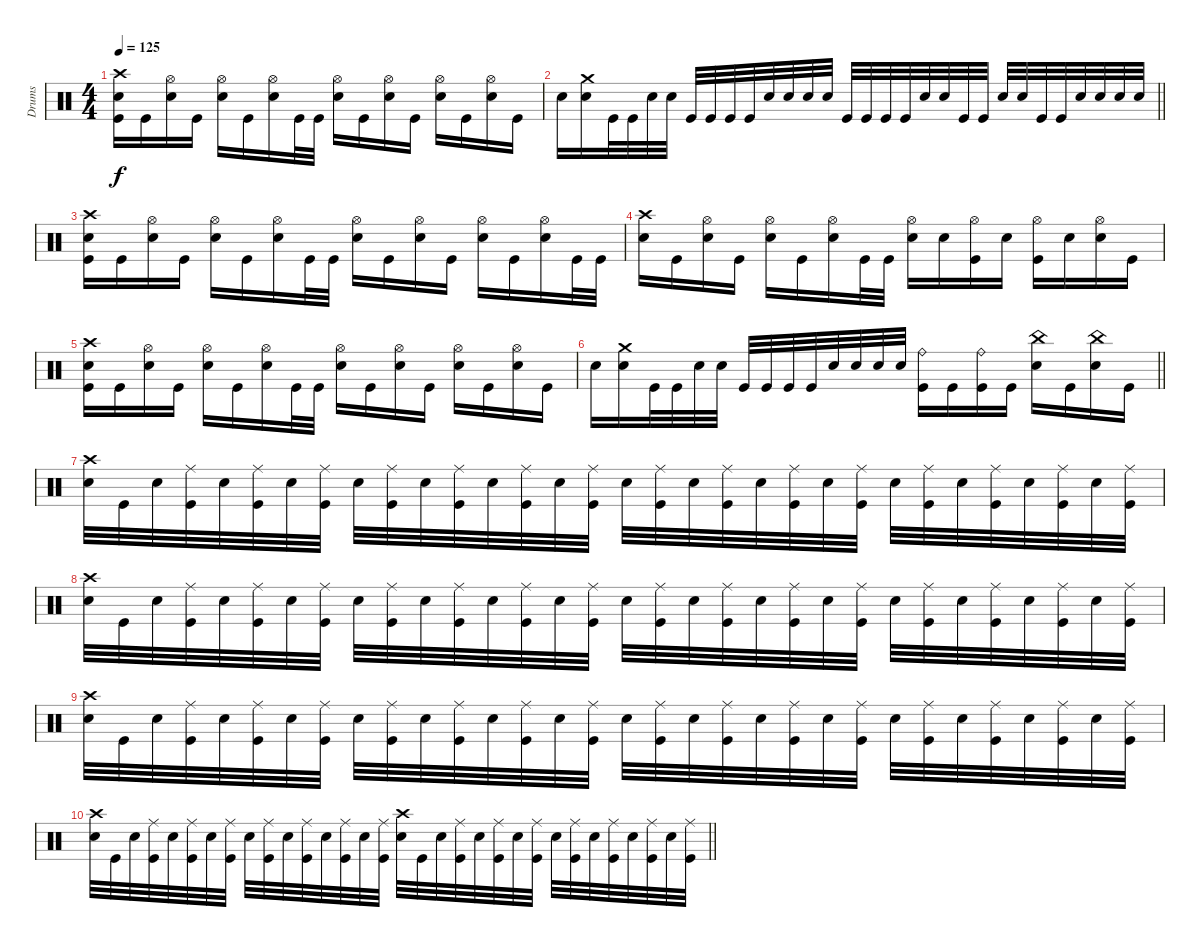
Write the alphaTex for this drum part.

\track ("Drums" "Drums") {instrument percussion}
\staff
\articulation defaults
\ts (4 4)
\tempo 125
\clef neutral
\ks c
("Crash high (hit)" "Electric Snare (hit)" "Kick (hit)").16{dy f} "Kick (hit)".16 ("Hi-Hat (open)" "Electric Snare (hit)").16 "Kick (hit)".16 ("Hi-Hat (open)" "Electric Snare (hit)").16 "Kick (hit)".16 ("Hi-Hat (open)" "Electric Snare (hit)").16 "Kick (hit)".32 "Kick (hit)".32 ("Hi-Hat (open)" "Electric Snare (hit)").16 "Kick (hit)".16 ("Hi-Hat (open)" "Electric Snare (hit)").16 "Kick (hit)".16 ("Hi-Hat (open)" "Electric Snare (hit)").16 "Kick (hit)".16 ("Hi-Hat (open)" "Electric Snare (hit)").16 "Kick (hit)".16 |
\barLineRight lightlight "Electric Snare (hit)".16
("Crash medium (hit)" "Electric Snare (hit)").16 "Kick (hit)".32 "Kick (hit)".32 "Electric Snare (hit)".32 "Electric Snare (hit)".32 "Kick (hit)".32 "Kick (hit)".32 "Kick (hit)".32 "Kick (hit)".32 "Electric Snare (hit)".32 "Electric Snare (hit)".32 "Electric Snare (hit)".32 "Electric Snare (hit)".32 "Kick (hit)".32 "Kick (hit)".32 "Kick (hit)".32 "Kick (hit)".32 "Electric Snare (hit)".32 "Electric Snare (hit)".32 "Kick (hit)".32 "Kick (hit)".32 "Electric Snare (hit)".32 "Electric Snare (hit)".32 "Kick (hit)".32 "Kick (hit)".32 "Electric Snare (hit)".32 "Electric Snare (hit)".32 "Electric Snare (hit)".32 "Electric Snare (hit)".32 |
("Crash high (hit)" "Electric Snare (hit)" "Kick (hit)").16 "Kick (hit)".16 ("Hi-Hat (open)" "Electric Snare (hit)").16 "Kick (hit)".16 ("Hi-Hat (open)" "Electric Snare (hit)").16 "Kick (hit)".16 ("Hi-Hat (open)" "Electric Snare (hit)").16 "Kick (hit)".32 "Kick (hit)".32 ("Hi-Hat (open)" "Electric Snare (hit)").16 "Kick (hit)".16 ("Hi-Hat (open)" "Electric Snare (hit)").16 "Kick (hit)".16 ("Hi-Hat (open)" "Electric Snare (hit)").16 "Kick (hit)".16 ("Hi-Hat (open)" "Electric Snare (hit)").16 "Kick (hit)".32 "Kick (hit)".32 |
("Crash high (hit)" "Electric Snare (hit)").16 "Kick (hit)".16 ("Hi-Hat (open)" "Electric Snare (hit)").16 "Kick (hit)".16 ("Hi-Hat (open)" "Electric Snare (hit)").16 "Kick (hit)".16 ("Hi-Hat (open)" "Electric Snare (hit)").16 "Kick (hit)".32 "Kick (hit)".32 ("Hi-Hat (open)" "Electric Snare (hit)").16 "Electric Snare (hit)".16 ("Hi-Hat (open)" "Kick (hit)").16 "Electric Snare (hit)".16 ("Hi-Hat (open)" "Kick (hit)").16 "Electric Snare (hit)".16 ("Hi-Hat (open)" "Electric Snare (hit)").16 "Kick (hit)".16 |
("Crash high (hit)" "Electric Snare (hit)" "Kick (hit)").16 "Kick (hit)".16 ("Hi-Hat (open)" "Electric Snare (hit)").16 "Kick (hit)".16 ("Hi-Hat (open)" "Electric Snare (hit)").16 "Kick (hit)".16 ("Hi-Hat (open)" "Electric Snare (hit)").16 "Kick (hit)".32 "Kick (hit)".32 ("Hi-Hat (open)" "Electric Snare (hit)").16 "Kick (hit)".16 ("Hi-Hat (open)" "Electric Snare (hit)").16 "Kick (hit)".16 ("Hi-Hat (open)" "Electric Snare (hit)").16 "Kick (hit)".16 ("Hi-Hat (open)" "Electric Snare (hit)").16 "Kick (hit)".16 |
\barLineRight lightlight "Electric Snare (hit)".16
("Crash medium (hit)" "Electric Snare (hit)").16 "Kick (hit)".32 "Kick (hit)".32 "Electric Snare (hit)".32 "Electric Snare (hit)".32 "Kick (hit)".32 "Kick (hit)".32 "Kick (hit)".32 "Kick (hit)".32 "Electric Snare (hit)".32 "Electric Snare (hit)".32 "Electric Snare (hit)".32 "Electric Snare (hit)".32 ("Ride (bell)" "Kick (hit)").16 "Kick (hit)".16 ("Ride (bell)" "Kick (hit)").16 "Kick (hit)".16 ("China (hit)" "Electric Snare (hit)").16 "Kick (hit)".16 ("China (hit)" "Electric Snare (hit)").16 "Kick (hit)".16 |
("Crash high (hit)" "Electric Snare (hit)").32 "Kick (hit)".32 "Electric Snare (hit)".32 ("Ride (middle)" "Kick (hit)").32 "Electric Snare (hit)".32 ("Ride (middle)" "Kick (hit)").32 "Electric Snare (hit)".32 ("Ride (middle)" "Kick (hit)").32 "Electric Snare (hit)".32 ("Ride (middle)" "Kick (hit)").32 "Electric Snare (hit)".32 ("Ride (middle)" "Kick (hit)").32 "Electric Snare (hit)".32 ("Ride (middle)" "Kick (hit)").32 "Electric Snare (hit)".32 ("Ride (middle)" "Kick (hit)").32 "Electric Snare (hit)".32 ("Ride (middle)" "Kick (hit)").32 "Electric Snare (hit)".32 ("Ride (middle)" "Kick (hit)").32 "Electric Snare (hit)".32 ("Ride (middle)" "Kick (hit)").32 "Electric Snare (hit)".32 ("Ride (middle)" "Kick (hit)").32 "Electric Snare (hit)".32 ("Ride (middle)" "Kick (hit)").32 "Electric Snare (hit)".32 ("Ride (middle)" "Kick (hit)").32 "Electric Snare (hit)".32 ("Ride (middle)" "Kick (hit)").32 "Electric Snare (hit)".32 ("Ride (middle)" "Kick (hit)").32 |
("Crash high (hit)" "Electric Snare (hit)").32 "Kick (hit)".32 "Electric Snare (hit)".32 ("Ride (middle)" "Kick (hit)").32 "Electric Snare (hit)".32 ("Ride (middle)" "Kick (hit)").32 "Electric Snare (hit)".32 ("Ride (middle)" "Kick (hit)").32 "Electric Snare (hit)".32 ("Ride (middle)" "Kick (hit)").32 "Electric Snare (hit)".32 ("Ride (middle)" "Kick (hit)").32 "Electric Snare (hit)".32 ("Ride (middle)" "Kick (hit)").32 "Electric Snare (hit)".32 ("Ride (middle)" "Kick (hit)").32 "Electric Snare (hit)".32 ("Ride (middle)" "Kick (hit)").32 "Electric Snare (hit)".32 ("Ride (middle)" "Kick (hit)").32 "Electric Snare (hit)".32 ("Ride (middle)" "Kick (hit)").32 "Electric Snare (hit)".32 ("Ride (middle)" "Kick (hit)").32 "Electric Snare (hit)".32 ("Ride (middle)" "Kick (hit)").32 "Electric Snare (hit)".32 ("Ride (middle)" "Kick (hit)").32 "Electric Snare (hit)".32 ("Ride (middle)" "Kick (hit)").32 "Electric Snare (hit)".32 ("Ride (middle)" "Kick (hit)").32 |
("Crash high (hit)" "Electric Snare (hit)").32 "Kick (hit)".32 "Electric Snare (hit)".32 ("Ride (middle)" "Kick (hit)").32 "Electric Snare (hit)".32 ("Ride (middle)" "Kick (hit)").32 "Electric Snare (hit)".32 ("Ride (middle)" "Kick (hit)").32 "Electric Snare (hit)".32 ("Ride (middle)" "Kick (hit)").32 "Electric Snare (hit)".32 ("Ride (middle)" "Kick (hit)").32 "Electric Snare (hit)".32 ("Ride (middle)" "Kick (hit)").32 "Electric Snare (hit)".32 ("Ride (middle)" "Kick (hit)").32 "Electric Snare (hit)".32 ("Ride (middle)" "Kick (hit)").32 "Electric Snare (hit)".32 ("Ride (middle)" "Kick (hit)").32 "Electric Snare (hit)".32 ("Ride (middle)" "Kick (hit)").32 "Electric Snare (hit)".32 ("Ride (middle)" "Kick (hit)").32 "Electric Snare (hit)".32 ("Ride (middle)" "Kick (hit)").32 "Electric Snare (hit)".32 ("Ride (middle)" "Kick (hit)").32 "Electric Snare (hit)".32 ("Ride (middle)" "Kick (hit)").32 "Electric Snare (hit)".32 ("Ride (middle)" "Kick (hit)").32 |
\barLineRight lightlight
("Crash high (hit)" "Electric Snare (hit)").32 "Kick (hit)".32 "Electric Snare (hit)".32 ("Ride (middle)" "Kick (hit)").32 "Electric Snare (hit)".32 ("Ride (middle)" "Kick (hit)").32 "Electric Snare (hit)".32 ("Ride (middle)" "Kick (hit)").32 "Electric Snare (hit)".32 ("Ride (middle)" "Kick (hit)").32 "Electric Snare (hit)".32 ("Ride (middle)" "Kick (hit)").32 "Electric Snare (hit)".32 ("Ride (middle)" "Kick (hit)").32 "Electric Snare (hit)".32 ("Ride (middle)" "Kick (hit)").32 ("Crash high (hit)" "Electric Snare (hit)").32 "Kick (hit)".32 "Electric Snare (hit)".32 ("Ride (middle)" "Kick (hit)").32 "Electric Snare (hit)".32 ("Ride (middle)" "Kick (hit)").32 "Electric Snare (hit)".32 ("Ride (middle)" "Kick (hit)").32 "Electric Snare (hit)".32 ("Ride (middle)" "Kick (hit)").32 "Electric Snare (hit)".32 ("Ride (middle)" "Kick (hit)").32 "Electric Snare (hit)".32 ("Ride (middle)" "Kick (hit)").32 "Electric Snare (hit)".32 ("Ride (middle)" "Kick (hit)").32
